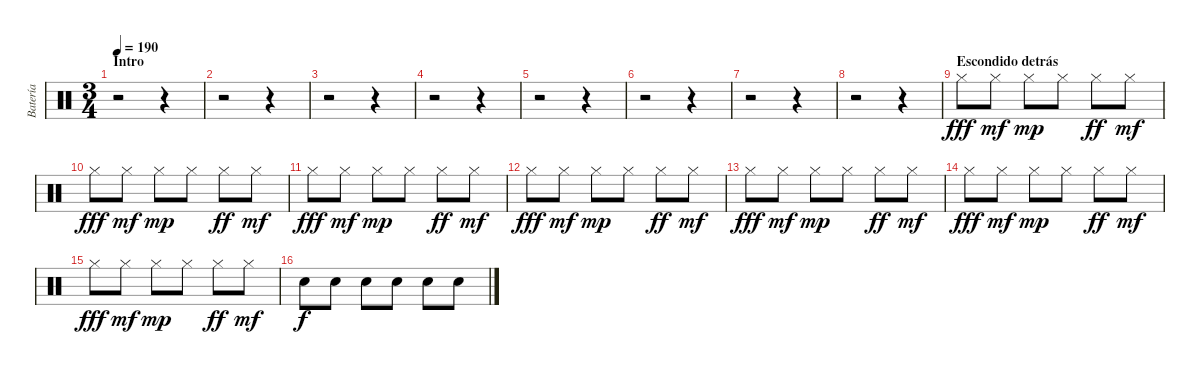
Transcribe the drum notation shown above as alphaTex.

\track ("Batería" "Batería") {instrument percussion}
\staff {score}
\articulation defaults
\ts (3 4)
\section ("" "Intro")
\tempo 190
\clef neutral
\ks c
r.2{dy fff} r.4 |
r.2 r.4 |
r.2 r.4 |
r.2 r.4 |
r.2 r.4 |
r.2 r.4 |
r.2 r.4 |
r.2 r.4 |
\section ("" "Escondido detrás")
"Hi-Hat (closed)".8 "Hi-Hat (closed)".8{dy mf} "Hi-Hat (closed)".8{dy mp} "Hi-Hat (closed)".8 "Hi-Hat (closed)".8{dy ff} "Hi-Hat (closed)".8{dy mf} |
"Hi-Hat (closed)".8{dy fff} "Hi-Hat (closed)".8{dy mf} "Hi-Hat (closed)".8{dy mp} "Hi-Hat (closed)".8 "Hi-Hat (closed)".8{dy ff} "Hi-Hat (closed)".8{dy mf} |
"Hi-Hat (closed)".8{dy fff} "Hi-Hat (closed)".8{dy mf} "Hi-Hat (closed)".8{dy mp} "Hi-Hat (closed)".8 "Hi-Hat (closed)".8{dy ff} "Hi-Hat (closed)".8{dy mf} |
"Hi-Hat (closed)".8{dy fff} "Hi-Hat (closed)".8{dy mf} "Hi-Hat (closed)".8{dy mp} "Hi-Hat (closed)".8 "Hi-Hat (closed)".8{dy ff} "Hi-Hat (closed)".8{dy mf} |
"Hi-Hat (closed)".8{dy fff} "Hi-Hat (closed)".8{dy mf} "Hi-Hat (closed)".8{dy mp} "Hi-Hat (closed)".8 "Hi-Hat (closed)".8{dy ff} "Hi-Hat (closed)".8{dy mf} |
"Hi-Hat (closed)".8{dy fff} "Hi-Hat (closed)".8{dy mf} "Hi-Hat (closed)".8{dy mp} "Hi-Hat (closed)".8 "Hi-Hat (closed)".8{dy ff} "Hi-Hat (closed)".8{dy mf} |
"Hi-Hat (closed)".8{dy fff} "Hi-Hat (closed)".8{dy mf} "Hi-Hat (closed)".8{dy mp} "Hi-Hat (closed)".8 "Hi-Hat (closed)".8{dy ff} "Hi-Hat (closed)".8{dy mf} |
"Electric Snare (hit)".8{dy f} "Electric Snare (hit)".8 "Snare (hit) 2".8 "Snare (hit) 2".8 "Snare (hit) 2".8 "Snare (hit) 2".8
